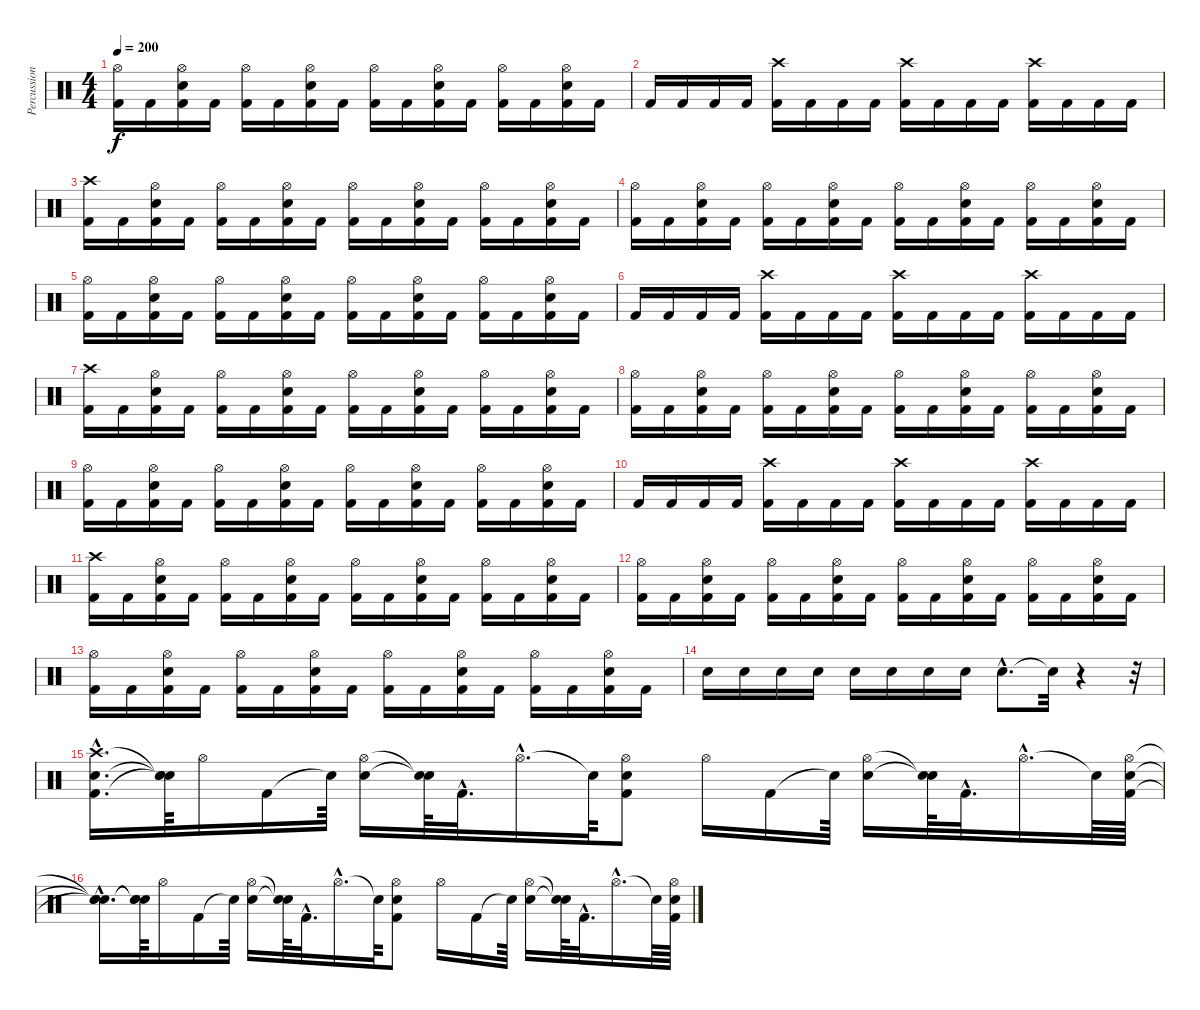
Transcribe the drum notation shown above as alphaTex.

\track ("Percussion" "Percussion") {instrument percussion}
\staff {score}
\articulation defaults
\ts (4 4)
\tempo 200
\clef neutral
\ks c
("Kick (hit) 2" "Hi-Hat (open)").16{dy f} "Kick (hit) 2".16 ("Kick (hit) 2" "Electric Snare (hit)" "Hi-Hat (open)").16 "Kick (hit) 2".16 ("Kick (hit) 2" "Hi-Hat (open)").16 "Kick (hit) 2".16 ("Kick (hit) 2" "Electric Snare (hit)" "Hi-Hat (open)").16 "Kick (hit) 2".16 ("Kick (hit) 2" "Hi-Hat (open)").16 "Kick (hit) 2".16 ("Kick (hit) 2" "Electric Snare (hit)" "Hi-Hat (open)").16 "Kick (hit) 2".16 ("Kick (hit) 2" "Hi-Hat (open)").16 "Kick (hit) 2".16 ("Kick (hit) 2" "Electric Snare (hit)" "Hi-Hat (open)").16 "Kick (hit) 2".16 |
"Kick (hit) 2".16 "Kick (hit) 2".16 "Kick (hit) 2".16 "Kick (hit) 2".16 ("Kick (hit) 2" "Crash high (hit)").16 "Kick (hit) 2".16 "Kick (hit) 2".16 "Kick (hit) 2".16 ("Kick (hit) 2" "Crash high (hit)").16 "Kick (hit) 2".16 "Kick (hit) 2".16 "Kick (hit) 2".16 ("Kick (hit) 2" "Crash high (hit)").16 "Kick (hit) 2".16 "Kick (hit) 2".16 "Kick (hit) 2".16 |
("Kick (hit) 2" "Crash high (hit)").16 "Kick (hit) 2".16 ("Kick (hit) 2" "Electric Snare (hit)" "Hi-Hat (open)").16 "Kick (hit) 2".16 ("Kick (hit) 2" "Hi-Hat (open)").16 "Kick (hit) 2".16 ("Kick (hit) 2" "Electric Snare (hit)" "Hi-Hat (open)").16 "Kick (hit) 2".16 ("Kick (hit) 2" "Hi-Hat (open)").16 "Kick (hit) 2".16 ("Kick (hit) 2" "Electric Snare (hit)" "Hi-Hat (open)").16 "Kick (hit) 2".16 ("Kick (hit) 2" "Hi-Hat (open)").16 "Kick (hit) 2".16 ("Kick (hit) 2" "Electric Snare (hit)" "Hi-Hat (open)").16 "Kick (hit) 2".16 |
("Kick (hit) 2" "Hi-Hat (open)").16 "Kick (hit) 2".16 ("Kick (hit) 2" "Electric Snare (hit)" "Hi-Hat (open)").16 "Kick (hit) 2".16 ("Kick (hit) 2" "Hi-Hat (open)").16 "Kick (hit) 2".16 ("Kick (hit) 2" "Electric Snare (hit)" "Hi-Hat (open)").16 "Kick (hit) 2".16 ("Kick (hit) 2" "Hi-Hat (open)").16 "Kick (hit) 2".16 ("Kick (hit) 2" "Electric Snare (hit)" "Hi-Hat (open)").16 "Kick (hit) 2".16 ("Kick (hit) 2" "Hi-Hat (open)").16 "Kick (hit) 2".16 ("Kick (hit) 2" "Electric Snare (hit)" "Hi-Hat (open)").16 "Kick (hit) 2".16 |
("Kick (hit) 2" "Hi-Hat (open)").16 "Kick (hit) 2".16 ("Kick (hit) 2" "Electric Snare (hit)" "Hi-Hat (open)").16 "Kick (hit) 2".16 ("Kick (hit) 2" "Hi-Hat (open)").16 "Kick (hit) 2".16 ("Kick (hit) 2" "Electric Snare (hit)" "Hi-Hat (open)").16 "Kick (hit) 2".16 ("Kick (hit) 2" "Hi-Hat (open)").16 "Kick (hit) 2".16 ("Kick (hit) 2" "Electric Snare (hit)" "Hi-Hat (open)").16 "Kick (hit) 2".16 ("Kick (hit) 2" "Hi-Hat (open)").16 "Kick (hit) 2".16 ("Kick (hit) 2" "Electric Snare (hit)" "Hi-Hat (open)").16 "Kick (hit) 2".16 |
"Kick (hit) 2".16 "Kick (hit) 2".16 "Kick (hit) 2".16 "Kick (hit) 2".16 ("Kick (hit) 2" "Crash high (hit)").16 "Kick (hit) 2".16 "Kick (hit) 2".16 "Kick (hit) 2".16 ("Kick (hit) 2" "Crash high (hit)").16 "Kick (hit) 2".16 "Kick (hit) 2".16 "Kick (hit) 2".16 ("Kick (hit) 2" "Crash high (hit)").16 "Kick (hit) 2".16 "Kick (hit) 2".16 "Kick (hit) 2".16 |
("Kick (hit) 2" "Crash high (hit)").16 "Kick (hit) 2".16 ("Kick (hit) 2" "Electric Snare (hit)" "Hi-Hat (open)").16 "Kick (hit) 2".16 ("Kick (hit) 2" "Hi-Hat (open)").16 "Kick (hit) 2".16 ("Kick (hit) 2" "Electric Snare (hit)" "Hi-Hat (open)").16 "Kick (hit) 2".16 ("Kick (hit) 2" "Hi-Hat (open)").16 "Kick (hit) 2".16 ("Kick (hit) 2" "Electric Snare (hit)" "Hi-Hat (open)").16 "Kick (hit) 2".16 ("Kick (hit) 2" "Hi-Hat (open)").16 "Kick (hit) 2".16 ("Kick (hit) 2" "Electric Snare (hit)" "Hi-Hat (open)").16 "Kick (hit) 2".16 |
("Kick (hit) 2" "Hi-Hat (open)").16 "Kick (hit) 2".16 ("Kick (hit) 2" "Electric Snare (hit)" "Hi-Hat (open)").16 "Kick (hit) 2".16 ("Kick (hit) 2" "Hi-Hat (open)").16 "Kick (hit) 2".16 ("Kick (hit) 2" "Electric Snare (hit)" "Hi-Hat (open)").16 "Kick (hit) 2".16 ("Kick (hit) 2" "Hi-Hat (open)").16 "Kick (hit) 2".16 ("Kick (hit) 2" "Electric Snare (hit)" "Hi-Hat (open)").16 "Kick (hit) 2".16 ("Kick (hit) 2" "Hi-Hat (open)").16 "Kick (hit) 2".16 ("Kick (hit) 2" "Electric Snare (hit)" "Hi-Hat (open)").16 "Kick (hit) 2".16 |
("Kick (hit) 2" "Hi-Hat (open)").16 "Kick (hit) 2".16 ("Kick (hit) 2" "Electric Snare (hit)" "Hi-Hat (open)").16 "Kick (hit) 2".16 ("Kick (hit) 2" "Hi-Hat (open)").16 "Kick (hit) 2".16 ("Kick (hit) 2" "Electric Snare (hit)" "Hi-Hat (open)").16 "Kick (hit) 2".16 ("Kick (hit) 2" "Hi-Hat (open)").16 "Kick (hit) 2".16 ("Kick (hit) 2" "Electric Snare (hit)" "Hi-Hat (open)").16 "Kick (hit) 2".16 ("Kick (hit) 2" "Hi-Hat (open)").16 "Kick (hit) 2".16 ("Kick (hit) 2" "Electric Snare (hit)" "Hi-Hat (open)").16 "Kick (hit) 2".16 |
"Kick (hit) 2".16 "Kick (hit) 2".16 "Kick (hit) 2".16 "Kick (hit) 2".16 ("Kick (hit) 2" "Crash high (hit)").16 "Kick (hit) 2".16 "Kick (hit) 2".16 "Kick (hit) 2".16 ("Kick (hit) 2" "Crash high (hit)").16 "Kick (hit) 2".16 "Kick (hit) 2".16 "Kick (hit) 2".16 ("Kick (hit) 2" "Crash high (hit)").16 "Kick (hit) 2".16 "Kick (hit) 2".16 "Kick (hit) 2".16 |
("Kick (hit) 2" "Crash high (hit)").16 "Kick (hit) 2".16 ("Kick (hit) 2" "Electric Snare (hit)" "Hi-Hat (open)").16 "Kick (hit) 2".16 ("Kick (hit) 2" "Hi-Hat (open)").16 "Kick (hit) 2".16 ("Kick (hit) 2" "Electric Snare (hit)" "Hi-Hat (open)").16 "Kick (hit) 2".16 ("Kick (hit) 2" "Hi-Hat (open)").16 "Kick (hit) 2".16 ("Kick (hit) 2" "Electric Snare (hit)" "Hi-Hat (open)").16 "Kick (hit) 2".16 ("Kick (hit) 2" "Hi-Hat (open)").16 "Kick (hit) 2".16 ("Kick (hit) 2" "Electric Snare (hit)" "Hi-Hat (open)").16 "Kick (hit) 2".16 |
("Kick (hit) 2" "Hi-Hat (open)").16 "Kick (hit) 2".16 ("Kick (hit) 2" "Electric Snare (hit)" "Hi-Hat (open)").16 "Kick (hit) 2".16 ("Kick (hit) 2" "Hi-Hat (open)").16 "Kick (hit) 2".16 ("Kick (hit) 2" "Electric Snare (hit)" "Hi-Hat (open)").16 "Kick (hit) 2".16 ("Kick (hit) 2" "Hi-Hat (open)").16 "Kick (hit) 2".16 ("Kick (hit) 2" "Electric Snare (hit)" "Hi-Hat (open)").16 "Kick (hit) 2".16 ("Kick (hit) 2" "Hi-Hat (open)").16 "Kick (hit) 2".16 ("Kick (hit) 2" "Electric Snare (hit)" "Hi-Hat (open)").16 "Kick (hit) 2".16 |
("Kick (hit) 2" "Hi-Hat (open)").16 "Kick (hit) 2".16 ("Kick (hit) 2" "Electric Snare (hit)" "Hi-Hat (open)").16 "Kick (hit) 2".16 ("Kick (hit) 2" "Hi-Hat (open)").16 "Kick (hit) 2".16 ("Kick (hit) 2" "Electric Snare (hit)" "Hi-Hat (open)").16 "Kick (hit) 2".16 ("Kick (hit) 2" "Hi-Hat (open)").16 "Kick (hit) 2".16 ("Kick (hit) 2" "Electric Snare (hit)" "Hi-Hat (open)").16 "Kick (hit) 2".16 ("Kick (hit) 2" "Hi-Hat (open)").16 "Kick (hit) 2".16 ("Kick (hit) 2" "Electric Snare (hit)" "Hi-Hat (open)").16 "Kick (hit) 2".16 |
"Electric Snare (hit)".16 "Electric Snare (hit)".16 "Electric Snare (hit)".16 "Electric Snare (hit)".16 "Electric Snare (hit)".16 "Electric Snare (hit)".16 "Electric Snare (hit)".16 "Electric Snare (hit)".16 "Electric Snare (hit)"{hac}.8{d} "Snare (hit)"{t}.32 r.4 r.32 |
("Electric Snare (hit)"{hac} "Crash high (hit)"{hac} "Kick (hit) 2"{hac}).16{d} ("Snare (hit)"{t} "Snare (hit)"{t} "Snare (hit)"{t}).64 "Hi-Hat (open)".16 "Kick (hit) 2".16 "Snare (hit)"{t}.64 ("Electric Snare (hit)" "Hi-Hat (open)").16 ("Snare (hit)"{t} "Snare (hit)"{t}).64 "Kick (hit) 2"{hac}.32{d} "Hi-Hat (open)"{hac}.16{d} "Snare (hit)"{t}.64 ("Electric Snare (hit)" "Hi-Hat (open)" "Kick (hit) 2").8 "Hi-Hat (open)".16 "Kick (hit) 2".16 "Snare (hit)"{t}.64 ("Electric Snare (hit)" "Hi-Hat (open)").16 ("Snare (hit)"{t} "Snare (hit)"{t}).64 "Kick (hit) 2"{hac}.32{d} "Hi-Hat (open)"{hac}.16{d} "Snare (hit)"{t}.64 ("Electric Snare (hit)" "Hi-Hat (open)" "Kick (hit) 2").64 |
("Snare (hit)"{hac t} "Snare (hit)"{hac t} "Snare (hit)"{hac t}).16{d} ("Snare (hit)"{t} "Snare (hit)"{t} "Snare (hit)"{t}).64 "Hi-Hat (open)".16 "Kick (hit) 2".16 "Snare (hit)"{t}.64 ("Electric Snare (hit)" "Hi-Hat (open)").16 ("Snare (hit)"{t} "Snare (hit)"{t}).64 "Kick (hit) 2"{hac}.32{d} "Hi-Hat (open)"{hac}.16{d} "Snare (hit)"{t}.64 ("Electric Snare (hit)" "Hi-Hat (open)" "Kick (hit) 2").8 "Hi-Hat (open)".16 "Kick (hit) 2".16 "Snare (hit)"{t}.64 ("Electric Snare (hit)" "Hi-Hat (open)").16 ("Snare (hit)"{t} "Snare (hit)"{t}).64 "Kick (hit) 2"{hac}.32{d} "Hi-Hat (open)"{hac}.16{d} "Snare (hit)"{t}.64 ("Electric Snare (hit)" "Hi-Hat (open)" "Kick (hit) 2").64
